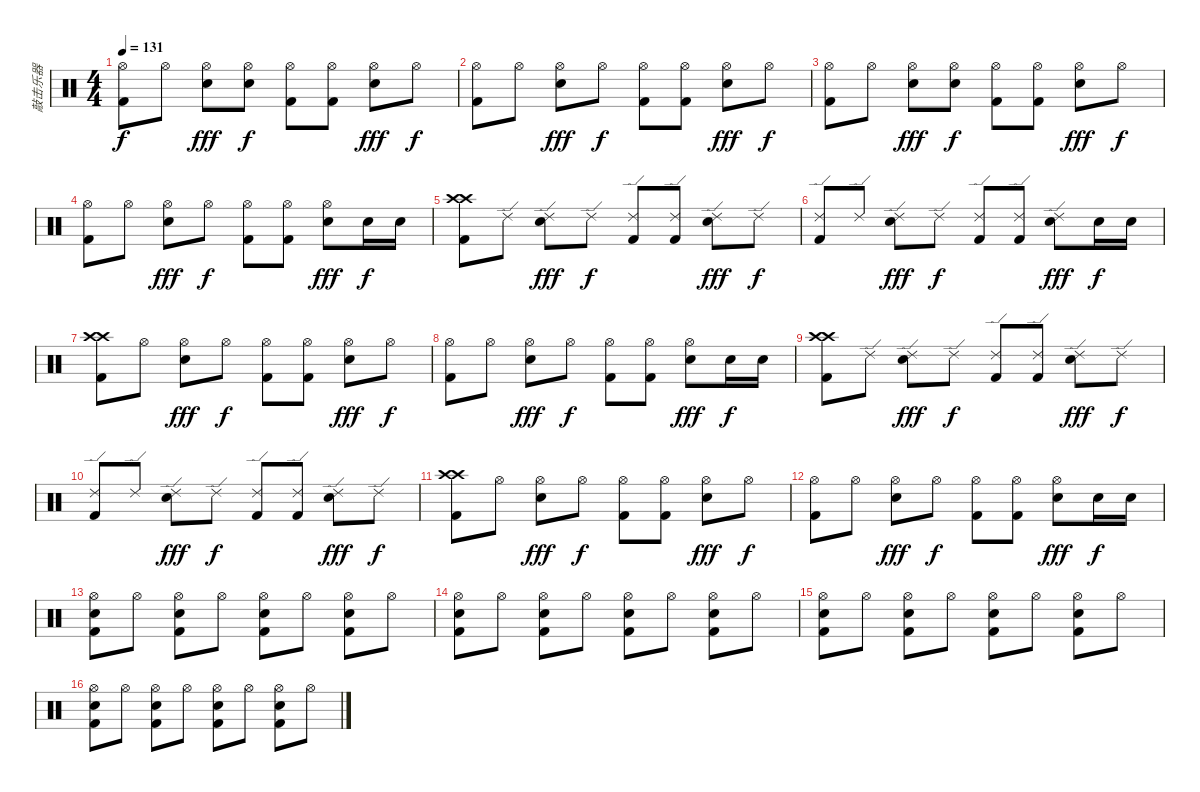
\track ("敲击乐器" "敲击乐器") {instrument percussion}
\staff {score}
\articulation defaults
\ts (4 4)
\tempo 131
\clef neutral
\ks c
("Hi-Hat (open)" "Kick (hit) 2").8{dy f} "Hi-Hat (open)".8 ("Hi-Hat (open)" "Electric Snare (hit)").8{dy fff} ("Hi-Hat (open)" "Electric Snare (hit)").8{dy f} ("Hi-Hat (open)" "Kick (hit) 2").8 ("Hi-Hat (open)" "Kick (hit) 2").8 ("Hi-Hat (open)" "Electric Snare (hit)").8{dy fff} "Hi-Hat (open)".8{dy f} |
("Hi-Hat (open)" "Kick (hit) 2").8 "Hi-Hat (open)".8 ("Hi-Hat (open)" "Electric Snare (hit)").8{dy fff} "Hi-Hat (open)".8{dy f} ("Hi-Hat (open)" "Kick (hit) 2").8 ("Hi-Hat (open)" "Kick (hit) 2").8 ("Hi-Hat (open)" "Electric Snare (hit)").8{dy fff} "Hi-Hat (open)".8{dy f} |
("Hi-Hat (open)" "Kick (hit) 2").8 "Hi-Hat (open)".8 ("Hi-Hat (open)" "Electric Snare (hit)").8{dy fff} ("Hi-Hat (open)" "Electric Snare (hit)").8{dy f} ("Hi-Hat (open)" "Kick (hit) 2").8 ("Hi-Hat (open)" "Kick (hit) 2").8 ("Hi-Hat (open)" "Electric Snare (hit)").8{dy fff} "Hi-Hat (open)".8{dy f} |
("Hi-Hat (open)" "Kick (hit) 2").8 "Hi-Hat (open)".8 ("Hi-Hat (open)" "Electric Snare (hit)").8{dy fff} "Hi-Hat (open)".8{dy f} ("Hi-Hat (open)" "Kick (hit) 2").8 ("Hi-Hat (open)" "Kick (hit) 2").8 ("Hi-Hat (open)" "Electric Snare (hit)").8{dy fff} "Electric Snare (hit)".16{dy f} "Electric Snare (hit)".16 |
("Crash high (hit)" "Kick (hit) 2" "Crash high (hit)").8 "Ride (edge) 2".8 ("Ride (edge) 2" "Electric Snare (hit)").8{dy fff} "Ride (edge) 2".8{dy f} ("Ride (edge) 2" "Kick (hit) 2").8 ("Ride (edge) 2" "Kick (hit) 2").8 ("Ride (edge) 2" "Electric Snare (hit)").8{dy fff} "Ride (edge) 2".8{dy f} |
("Ride (edge) 2" "Kick (hit) 2").8 "Ride (edge) 2".8 ("Ride (edge) 2" "Electric Snare (hit)").8{dy fff} "Ride (edge) 2".8{dy f} ("Ride (edge) 2" "Kick (hit) 2").8 ("Ride (edge) 2" "Kick (hit) 2").8 ("Ride (edge) 2" "Electric Snare (hit)").8{dy fff} "Electric Snare (hit)".16{dy f} "Electric Snare (hit)".16 |
("Crash high (hit)" "Kick (hit) 2" "Crash high (hit)").8 "Hi-Hat (open)".8 ("Hi-Hat (open)" "Electric Snare (hit)").8{dy fff} "Hi-Hat (open)".8{dy f} ("Hi-Hat (open)" "Kick (hit) 2").8 ("Hi-Hat (open)" "Kick (hit) 2").8 ("Hi-Hat (open)" "Electric Snare (hit)").8{dy fff} "Hi-Hat (open)".8{dy f} |
("Hi-Hat (open)" "Kick (hit) 2").8 "Hi-Hat (open)".8 ("Hi-Hat (open)" "Electric Snare (hit)").8{dy fff} "Hi-Hat (open)".8{dy f} ("Hi-Hat (open)" "Kick (hit) 2").8 ("Hi-Hat (open)" "Kick (hit) 2").8 ("Hi-Hat (open)" "Electric Snare (hit)").8{dy fff} "Electric Snare (hit)".16{dy f} "Electric Snare (hit)".16 |
("Crash high (hit)" "Kick (hit) 2" "Crash high (hit)").8 "Ride (edge) 2".8 ("Ride (edge) 2" "Electric Snare (hit)").8{dy fff} "Ride (edge) 2".8{dy f} ("Ride (edge) 2" "Kick (hit) 2").8 ("Ride (edge) 2" "Kick (hit) 2").8 ("Ride (edge) 2" "Electric Snare (hit)").8{dy fff} "Ride (edge) 2".8{dy f} |
("Ride (edge) 2" "Kick (hit) 2").8 "Ride (edge) 2".8 ("Ride (edge) 2" "Electric Snare (hit)").8{dy fff} "Ride (edge) 2".8{dy f} ("Ride (edge) 2" "Kick (hit) 2").8 ("Ride (edge) 2" "Kick (hit) 2").8 ("Ride (edge) 2" "Electric Snare (hit)").8{dy fff} "Ride (edge) 2".8{dy f} |
("Crash high (hit)" "Kick (hit) 2" "Crash high (hit)").8 "Hi-Hat (open)".8 ("Hi-Hat (open)" "Electric Snare (hit)").8{dy fff} "Hi-Hat (open)".8{dy f} ("Hi-Hat (open)" "Kick (hit) 2").8 ("Hi-Hat (open)" "Kick (hit) 2").8 ("Hi-Hat (open)" "Electric Snare (hit)").8{dy fff} "Hi-Hat (open)".8{dy f} |
("Hi-Hat (open)" "Kick (hit) 2").8 "Hi-Hat (open)".8 ("Hi-Hat (open)" "Electric Snare (hit)").8{dy fff} "Hi-Hat (open)".8{dy f} ("Hi-Hat (open)" "Kick (hit) 2").8 ("Hi-Hat (open)" "Kick (hit) 2").8 ("Hi-Hat (open)" "Electric Snare (hit)").8{dy fff} "Electric Snare (hit)".16{dy f} "Electric Snare (hit)".16 |
("Hi-Hat (open)" "Electric Snare (hit)" "Kick (hit) 2").8 "Hi-Hat (open)".8 ("Hi-Hat (open)" "Electric Snare (hit)" "Kick (hit) 2").8 "Hi-Hat (open)".8 ("Hi-Hat (open)" "Electric Snare (hit)" "Kick (hit) 2").8 "Hi-Hat (open)".8 ("Hi-Hat (open)" "Electric Snare (hit)" "Kick (hit) 2").8 "Hi-Hat (open)".8 |
("Hi-Hat (open)" "Electric Snare (hit)" "Kick (hit) 2").8 "Hi-Hat (open)".8 ("Hi-Hat (open)" "Electric Snare (hit)" "Kick (hit) 2").8 "Hi-Hat (open)".8 ("Hi-Hat (open)" "Electric Snare (hit)" "Kick (hit) 2").8 "Hi-Hat (open)".8 ("Hi-Hat (open)" "Electric Snare (hit)" "Kick (hit) 2").8 "Hi-Hat (open)".8 |
("Hi-Hat (open)" "Electric Snare (hit)" "Kick (hit) 2").8 "Hi-Hat (open)".8 ("Hi-Hat (open)" "Electric Snare (hit)" "Kick (hit) 2").8 "Hi-Hat (open)".8 ("Hi-Hat (open)" "Electric Snare (hit)" "Kick (hit) 2").8 "Hi-Hat (open)".8 ("Hi-Hat (open)" "Electric Snare (hit)" "Kick (hit) 2").8 "Hi-Hat (open)".8 |
("Hi-Hat (open)" "Electric Snare (hit)" "Kick (hit) 2").8 "Hi-Hat (open)".8 ("Hi-Hat (open)" "Electric Snare (hit)" "Kick (hit) 2").8 "Hi-Hat (open)".8 ("Hi-Hat (open)" "Electric Snare (hit)" "Kick (hit) 2").8 "Hi-Hat (open)".8 ("Hi-Hat (open)" "Electric Snare (hit)" "Kick (hit) 2").8 "Hi-Hat (open)".8
